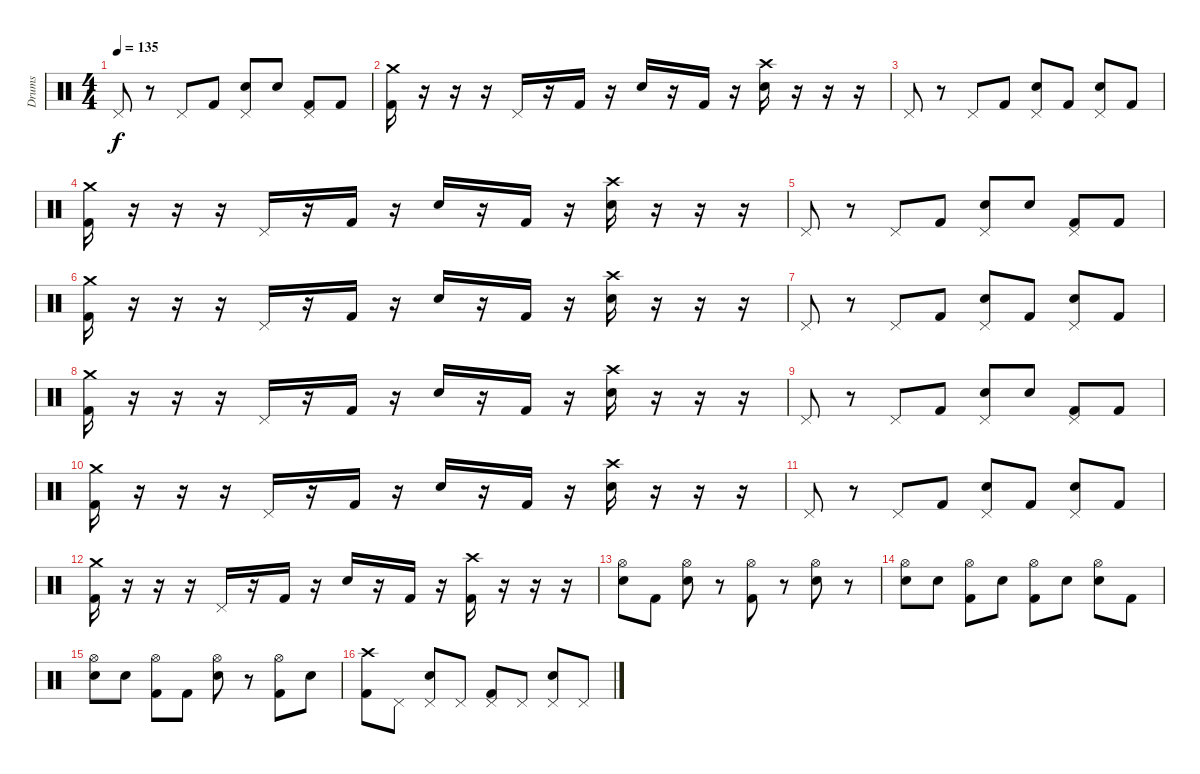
\track ("Drums" "Drums") {instrument percussion}
\staff {score}
\articulation defaults
\ts (4 4)
\tempo 135
\clef neutral
\ks c "Pedal Hi-Hat (hit)".8{dy f}
r.8 "Pedal Hi-Hat (hit)".8 "Kick (hit) 2".8 ("Pedal Hi-Hat (hit)" "Snare (hit) 2").8 "Snare (hit) 2".8 ("Pedal Hi-Hat (hit)" "Kick (hit) 2").8 "Kick (hit) 2".8 |
("Crash medium (hit)" "Kick (hit) 2").16 r.16 r.16 r.16 "Pedal Hi-Hat (hit)".16 r.16 "Kick (hit) 2".16 r.16 "Snare (hit) 2".16 r.16 "Kick (hit) 2".16 r.16 ("Crash high (hit)" "Snare (hit) 2").16 r.16 r.16 r.16 |
"Pedal Hi-Hat (hit)".8 r.8 "Pedal Hi-Hat (hit)".8 "Kick (hit) 2".8 ("Pedal Hi-Hat (hit)" "Snare (hit) 2").8 "Kick (hit) 2".8 ("Pedal Hi-Hat (hit)" "Snare (hit) 2").8 "Kick (hit) 2".8 |
("Crash medium (hit)" "Kick (hit) 2").16 r.16 r.16 r.16 "Pedal Hi-Hat (hit)".16 r.16 "Kick (hit) 2".16 r.16 "Snare (hit) 2".16 r.16 "Kick (hit) 2".16 r.16 ("Crash high (hit)" "Snare (hit) 2").16 r.16 r.16 r.16 |
"Pedal Hi-Hat (hit)".8 r.8 "Pedal Hi-Hat (hit)".8 "Kick (hit) 2".8 ("Pedal Hi-Hat (hit)" "Snare (hit) 2").8 "Snare (hit) 2".8 ("Pedal Hi-Hat (hit)" "Kick (hit) 2").8 "Kick (hit) 2".8 |
("Crash medium (hit)" "Kick (hit) 2").16 r.16 r.16 r.16 "Pedal Hi-Hat (hit)".16 r.16 "Kick (hit) 2".16 r.16 "Snare (hit) 2".16 r.16 "Kick (hit) 2".16 r.16 ("Crash high (hit)" "Snare (hit) 2").16 r.16 r.16 r.16 |
"Pedal Hi-Hat (hit)".8 r.8 "Pedal Hi-Hat (hit)".8 "Kick (hit) 2".8 ("Pedal Hi-Hat (hit)" "Snare (hit) 2").8 "Kick (hit) 2".8 ("Pedal Hi-Hat (hit)" "Snare (hit) 2").8 "Kick (hit) 2".8 |
("Crash medium (hit)" "Kick (hit) 2").16 r.16 r.16 r.16 "Pedal Hi-Hat (hit)".16 r.16 "Kick (hit) 2".16 r.16 "Snare (hit) 2".16 r.16 "Kick (hit) 2".16 r.16 ("Crash high (hit)" "Snare (hit) 2").16 r.16 r.16 r.16 |
"Pedal Hi-Hat (hit)".8 r.8 "Pedal Hi-Hat (hit)".8 "Kick (hit) 2".8 ("Pedal Hi-Hat (hit)" "Snare (hit) 2").8 "Snare (hit) 2".8 ("Pedal Hi-Hat (hit)" "Kick (hit) 2").8 "Kick (hit) 2".8 |
("Crash medium (hit)" "Kick (hit) 2").16 r.16 r.16 r.16 "Pedal Hi-Hat (hit)".16 r.16 "Kick (hit) 2".16 r.16 "Snare (hit) 2".16 r.16 "Kick (hit) 2".16 r.16 ("Crash high (hit)" "Snare (hit) 2").16 r.16 r.16 r.16 |
"Pedal Hi-Hat (hit)".8 r.8 "Pedal Hi-Hat (hit)".8 "Kick (hit) 2".8 ("Pedal Hi-Hat (hit)" "Snare (hit) 2").8 "Kick (hit) 2".8 ("Pedal Hi-Hat (hit)" "Snare (hit) 2").8 "Kick (hit) 2".8 |
("Crash medium (hit)" "Kick (hit) 2").16 r.16 r.16 r.16 "Pedal Hi-Hat (hit)".16 r.16 "Kick (hit) 2".16 r.16 "Snare (hit) 2".16 r.16 "Kick (hit) 2".16 r.16 ("Crash high (hit)" "Kick (hit) 2").16 r.16 r.16 r.16 |
("Hi-Hat (open)" "Snare (hit) 2").8 "Kick (hit) 2".8 ("Hi-Hat (open)" "Snare (hit) 2").8 r.8 ("Hi-Hat (open)" "Kick (hit) 2").8 r.8 ("Hi-Hat (open)" "Snare (hit) 2").8 r.8 |
("Hi-Hat (open)" "Snare (hit) 2").8 "Snare (hit) 2".8 ("Hi-Hat (open)" "Kick (hit) 2").8 "Snare (hit) 2".8 ("Hi-Hat (open)" "Kick (hit) 2").8 "Snare (hit) 2".8 ("Hi-Hat (open)" "Snare (hit) 2").8 "Kick (hit) 2".8 |
("Hi-Hat (open)" "Snare (hit) 2").8 "Snare (hit) 2".8 ("Hi-Hat (open)" "Kick (hit) 2").8 "Kick (hit) 2".8 ("Hi-Hat (open)" "Snare (hit) 2").8 r.8 ("Hi-Hat (open)" "Kick (hit) 2").8 "Snare (hit) 2".8 |
("Crash high (hit)" "Kick (hit) 2").8 "Pedal Hi-Hat (hit)".8 ("Pedal Hi-Hat (hit)" "Snare (hit) 2").8 "Pedal Hi-Hat (hit)".8 ("Pedal Hi-Hat (hit)" "Kick (hit) 2").8 "Pedal Hi-Hat (hit)".8 ("Pedal Hi-Hat (hit)" "Snare (hit) 2").8 "Pedal Hi-Hat (hit)".8
